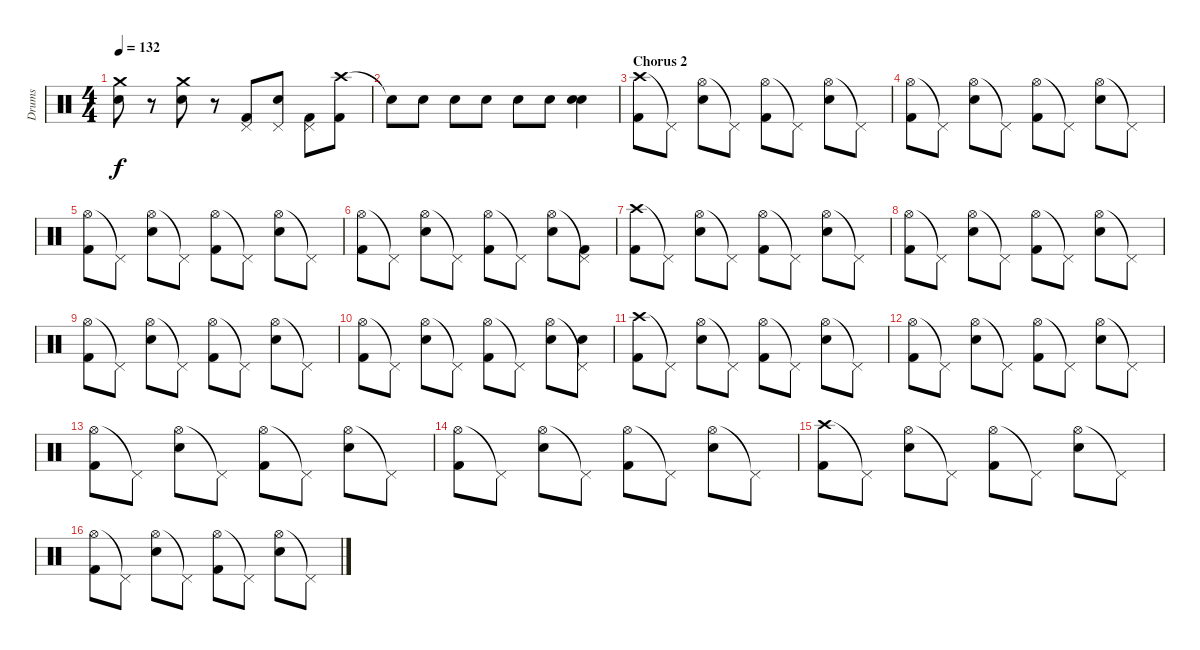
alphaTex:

\track ("Drums" "Drums") {instrument percussion}
\staff {score}
\articulation defaults
\ts (4 4)
\tempo 132
\clef neutral
\ks c
("Crash medium (hit)" "Snare (hit) 2").8{dy f} r.8 ("Crash medium (hit)" "Snare (hit) 2").8 r.8 ("Pedal Hi-Hat (hit)" "Kick (hit) 2").8 ("Pedal Hi-Hat (hit)" "Snare (hit) 2").8 ("Pedal Hi-Hat (hit)" "Kick (hit) 2").8 ("Crash high (hit)" "Kick (hit) 2").8 |
"Snare (hit) 2"{t}.8 "Snare (hit) 2".8 "Snare (hit) 2".8 "Snare (hit) 2".8 "Snare (hit) 2".8 "Snare (hit) 2".8 ("Snare (hit) 2" "Snare (hit) 2").4{bd 120} |
\section ("" "Chorus 2")
("Crash high (hit)" "Kick (hit) 2").8 "Pedal Hi-Hat (hit)"{t}.8 ("Hi-Hat (open)" "Snare (hit) 2").8 "Pedal Hi-Hat (hit)"{t}.8 ("Hi-Hat (open)" "Kick (hit) 2").8 "Pedal Hi-Hat (hit)"{t}.8 ("Hi-Hat (open)" "Snare (hit) 2").8 "Pedal Hi-Hat (hit)"{t}.8 |
("Hi-Hat (open)" "Kick (hit) 2").8 "Pedal Hi-Hat (hit)"{t}.8 ("Hi-Hat (open)" "Snare (hit) 2").8 "Pedal Hi-Hat (hit)"{t}.8 ("Hi-Hat (open)" "Kick (hit) 2").8 "Pedal Hi-Hat (hit)"{t}.8 ("Hi-Hat (open)" "Snare (hit) 2").8 "Pedal Hi-Hat (hit)"{t}.8 |
("Hi-Hat (open)" "Kick (hit) 2").8 "Pedal Hi-Hat (hit)"{t}.8 ("Hi-Hat (open)" "Snare (hit) 2").8 "Pedal Hi-Hat (hit)"{t}.8 ("Hi-Hat (open)" "Kick (hit) 2").8 "Pedal Hi-Hat (hit)"{t}.8 ("Hi-Hat (open)" "Snare (hit) 2").8 "Pedal Hi-Hat (hit)"{t}.8 |
("Hi-Hat (open)" "Kick (hit) 2").8 "Pedal Hi-Hat (hit)"{t}.8 ("Hi-Hat (open)" "Snare (hit) 2").8 "Pedal Hi-Hat (hit)"{t}.8 ("Hi-Hat (open)" "Kick (hit) 2").8 "Pedal Hi-Hat (hit)"{t}.8 ("Hi-Hat (open)" "Snare (hit) 2").8 ("Pedal Hi-Hat (hit)"{t} "Kick (hit) 2").8 |
("Crash high (hit)" "Kick (hit) 2").8 "Pedal Hi-Hat (hit)"{t}.8 ("Hi-Hat (open)" "Snare (hit) 2").8 "Pedal Hi-Hat (hit)"{t}.8 ("Hi-Hat (open)" "Kick (hit) 2").8 "Pedal Hi-Hat (hit)"{t}.8 ("Hi-Hat (open)" "Snare (hit) 2").8 "Pedal Hi-Hat (hit)"{t}.8 |
("Hi-Hat (open)" "Kick (hit) 2").8 "Pedal Hi-Hat (hit)"{t}.8 ("Hi-Hat (open)" "Snare (hit) 2").8 "Pedal Hi-Hat (hit)"{t}.8 ("Hi-Hat (open)" "Kick (hit) 2").8 "Pedal Hi-Hat (hit)"{t}.8 ("Hi-Hat (open)" "Snare (hit) 2").8 "Pedal Hi-Hat (hit)"{t}.8 |
("Hi-Hat (open)" "Kick (hit) 2").8 "Pedal Hi-Hat (hit)"{t}.8 ("Hi-Hat (open)" "Snare (hit) 2").8 "Pedal Hi-Hat (hit)"{t}.8 ("Hi-Hat (open)" "Kick (hit) 2").8 "Pedal Hi-Hat (hit)"{t}.8 ("Hi-Hat (open)" "Snare (hit) 2").8 "Pedal Hi-Hat (hit)"{t}.8 |
("Hi-Hat (open)" "Kick (hit) 2").8 "Pedal Hi-Hat (hit)"{t}.8 ("Hi-Hat (open)" "Snare (hit) 2").8 "Pedal Hi-Hat (hit)"{t}.8 ("Hi-Hat (open)" "Kick (hit) 2").8 "Pedal Hi-Hat (hit)"{t}.8 ("Hi-Hat (open)" "Snare (hit) 2").8 ("Pedal Hi-Hat (hit)"{t} "Snare (hit) 2").8 |
("Crash high (hit)" "Kick (hit) 2").8 "Pedal Hi-Hat (hit)"{t}.8 ("Hi-Hat (open)" "Snare (hit) 2").8 "Pedal Hi-Hat (hit)"{t}.8 ("Hi-Hat (open)" "Kick (hit) 2").8 "Pedal Hi-Hat (hit)"{t}.8 ("Hi-Hat (open)" "Snare (hit) 2").8 "Pedal Hi-Hat (hit)"{t}.8 |
("Hi-Hat (open)" "Kick (hit) 2").8 "Pedal Hi-Hat (hit)"{t}.8 ("Hi-Hat (open)" "Snare (hit) 2").8 "Pedal Hi-Hat (hit)"{t}.8 ("Hi-Hat (open)" "Kick (hit) 2").8 "Pedal Hi-Hat (hit)"{t}.8 ("Hi-Hat (open)" "Snare (hit) 2").8 "Pedal Hi-Hat (hit)"{t}.8 |
("Hi-Hat (open)" "Kick (hit) 2").8 "Pedal Hi-Hat (hit)"{t}.8 ("Hi-Hat (open)" "Snare (hit) 2").8 "Pedal Hi-Hat (hit)"{t}.8 ("Hi-Hat (open)" "Kick (hit) 2").8 "Pedal Hi-Hat (hit)"{t}.8 ("Hi-Hat (open)" "Snare (hit) 2").8 "Pedal Hi-Hat (hit)"{t}.8 |
("Hi-Hat (open)" "Kick (hit) 2").8 "Pedal Hi-Hat (hit)"{t}.8 ("Hi-Hat (open)" "Snare (hit) 2").8 "Pedal Hi-Hat (hit)"{t}.8 ("Hi-Hat (open)" "Kick (hit) 2").8 "Pedal Hi-Hat (hit)"{t}.8 ("Hi-Hat (open)" "Snare (hit) 2").8 "Pedal Hi-Hat (hit)"{t}.8 |
("Crash high (hit)" "Kick (hit) 2").8 "Pedal Hi-Hat (hit)"{t}.8 ("Hi-Hat (open)" "Snare (hit) 2").8 "Pedal Hi-Hat (hit)"{t}.8 ("Hi-Hat (open)" "Kick (hit) 2").8 "Pedal Hi-Hat (hit)"{t}.8 ("Hi-Hat (open)" "Snare (hit) 2").8 "Pedal Hi-Hat (hit)"{t}.8 |
("Hi-Hat (open)" "Kick (hit) 2").8 "Pedal Hi-Hat (hit)"{t}.8 ("Hi-Hat (open)" "Snare (hit) 2").8 "Pedal Hi-Hat (hit)"{t}.8 ("Hi-Hat (open)" "Kick (hit) 2").8 "Pedal Hi-Hat (hit)"{t}.8 ("Hi-Hat (open)" "Snare (hit) 2").8 "Pedal Hi-Hat (hit)"{t}.8
